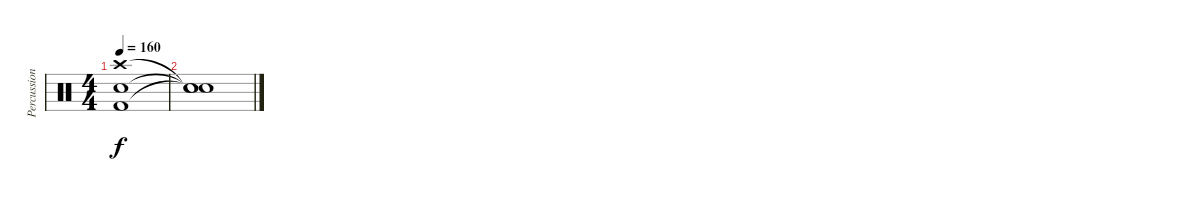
\track ("Percussion" "Percussion") {instrument percussion}
\staff {score}
\articulation defaults
\ts (4 4)
\tempo 160
\clef neutral
\ks c
("Crash high (hit)" "Snare (hit) 2" "Kick (hit) 2").1{dy f} |
("Snare (hit)"{t} "Snare (hit)"{t} "Snare (hit)"{t}).1
